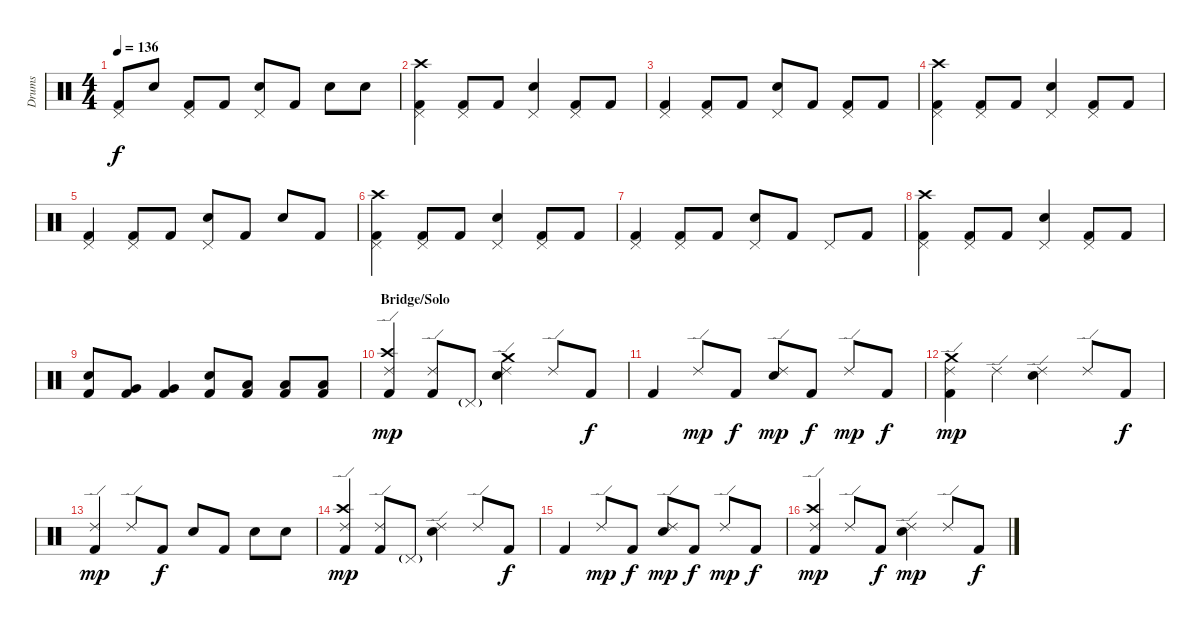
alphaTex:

\track ("Drums" "Drums") {instrument percussion}
\staff {score}
\articulation defaults
\ts (4 4)
\tempo 136
\clef neutral
\ks c
("Pedal Hi-Hat (hit)" "Kick (hit) 2").8{dy f} "Snare (hit) 2".8 ("Pedal Hi-Hat (hit)" "Kick (hit) 2").8 "Kick (hit) 2".8 ("Pedal Hi-Hat (hit)" "Snare (hit) 2").8 "Kick (hit) 2".8 "Snare (hit) 2".8 "Snare (hit) 2".8 |
("Pedal Hi-Hat (hit)" "Crash high (hit)" "Kick (hit) 2").4 ("Pedal Hi-Hat (hit)" "Kick (hit) 2").8 "Kick (hit) 2".8 ("Pedal Hi-Hat (hit)" "Snare (hit) 2").4 ("Pedal Hi-Hat (hit)" "Kick (hit) 2").8 "Kick (hit) 2".8 |
("Pedal Hi-Hat (hit)" "Kick (hit) 2").4 ("Pedal Hi-Hat (hit)" "Kick (hit) 2").8 "Kick (hit) 2".8 ("Pedal Hi-Hat (hit)" "Snare (hit) 2").8 "Kick (hit) 2".8 ("Pedal Hi-Hat (hit)" "Kick (hit) 2").8 "Kick (hit) 2".8 |
("Pedal Hi-Hat (hit)" "Crash high (hit)" "Kick (hit) 2").4 ("Pedal Hi-Hat (hit)" "Kick (hit) 2").8 "Kick (hit) 2".8 ("Pedal Hi-Hat (hit)" "Snare (hit) 2").4 ("Pedal Hi-Hat (hit)" "Kick (hit) 2").8 "Kick (hit) 2".8 |
("Pedal Hi-Hat (hit)" "Kick (hit) 2").4 ("Pedal Hi-Hat (hit)" "Kick (hit) 2").8 "Kick (hit) 2".8 ("Pedal Hi-Hat (hit)" "Snare (hit) 2").8 "Kick (hit) 2".8 "Snare (hit) 2".8 "Kick (hit) 2".8 |
("Pedal Hi-Hat (hit)" "Crash high (hit)" "Kick (hit) 2").4 ("Pedal Hi-Hat (hit)" "Kick (hit) 2").8 "Kick (hit) 2".8 ("Pedal Hi-Hat (hit)" "Snare (hit) 2").4 ("Pedal Hi-Hat (hit)" "Kick (hit) 2").8 "Kick (hit) 2".8 |
("Pedal Hi-Hat (hit)" "Kick (hit) 2").4 ("Pedal Hi-Hat (hit)" "Kick (hit) 2").8 "Kick (hit) 2".8 ("Pedal Hi-Hat (hit)" "Snare (hit) 2").8 "Kick (hit) 2".8 "Pedal Hi-Hat (hit)".8 "Kick (hit) 2".8 |
("Pedal Hi-Hat (hit)" "Crash high (hit)" "Kick (hit) 2").4 ("Pedal Hi-Hat (hit)" "Kick (hit) 2").8 "Kick (hit) 2".8 ("Pedal Hi-Hat (hit)" "Snare (hit) 2").4 ("Pedal Hi-Hat (hit)" "Kick (hit) 2").8 "Kick (hit) 2".8 |
("Snare (hit) 2" "Kick (hit) 2").8 ("Very Low Tom (hit)" "Kick (hit) 2").8 ("Very Low Tom (hit)" "Kick (hit) 2").4 ("Snare (hit) 2" "Kick (hit) 2").8 ("Low Floor Tom (hit)" "Kick (hit) 2").8 ("Low Floor Tom (hit)" "Kick (hit) 2").8 ("Low Floor Tom (hit)" "Kick (hit) 2").8 |
\section ("" "Bridge/Solo")
("Ride (edge) 2" "Crash high (hit)" "Kick (hit) 2").4{dy mp} ("Ride (edge) 2" "Kick (hit) 2").8 "Pedal Hi-Hat (hit)"{g}.8 ("Ride (edge) 2" "Crash medium (hit)" "Snare (hit) 2").4 "Ride (edge) 2".8 "Kick (hit) 2".8{dy f} |
"Kick (hit) 2".4 "Ride (edge) 2".8{dy mp} "Kick (hit) 2".8{dy f} ("Ride (edge) 2" "Snare (hit) 2").8{dy mp} "Kick (hit) 2".8{dy f} "Ride (edge) 2".8{dy mp} "Kick (hit) 2".8{dy f} |
("Ride (edge) 2" "Crash medium (hit)" "Kick (hit) 2").4{dy mp} "Ride (edge) 2".4 ("Ride (edge) 2" "Snare (hit) 2").4 "Ride (edge) 2".8 "Kick (hit) 2".8{dy f} |
("Ride (edge) 2" "Kick (hit) 2").4{dy mp} "Ride (edge) 2".8 "Kick (hit) 2".8{dy f} "Snare (hit) 2".8 "Kick (hit) 2".8 "Snare (hit) 2".8 "Snare (hit) 2".8 |
("Ride (edge) 2" "Crash high (hit)" "Kick (hit) 2").4{dy mp} ("Ride (edge) 2" "Kick (hit) 2").8 "Pedal Hi-Hat (hit)"{g}.8 ("Ride (edge) 2" "Snare (hit) 2").4 "Ride (edge) 2".8 "Kick (hit) 2".8{dy f} |
"Kick (hit) 2".4 "Ride (edge) 2".8{dy mp} "Kick (hit) 2".8{dy f} ("Ride (edge) 2" "Snare (hit) 2").8{dy mp} "Kick (hit) 2".8{dy f} "Ride (edge) 2".8{dy mp} "Kick (hit) 2".8{dy f} |
("Ride (edge) 2" "Crash high (hit)" "Kick (hit) 2").4{dy mp} "Ride (edge) 2".8 "Kick (hit) 2".8{dy f} ("Ride (edge) 2" "Snare (hit) 2").4{dy mp} "Ride (edge) 2".8 "Kick (hit) 2".8{dy f}
